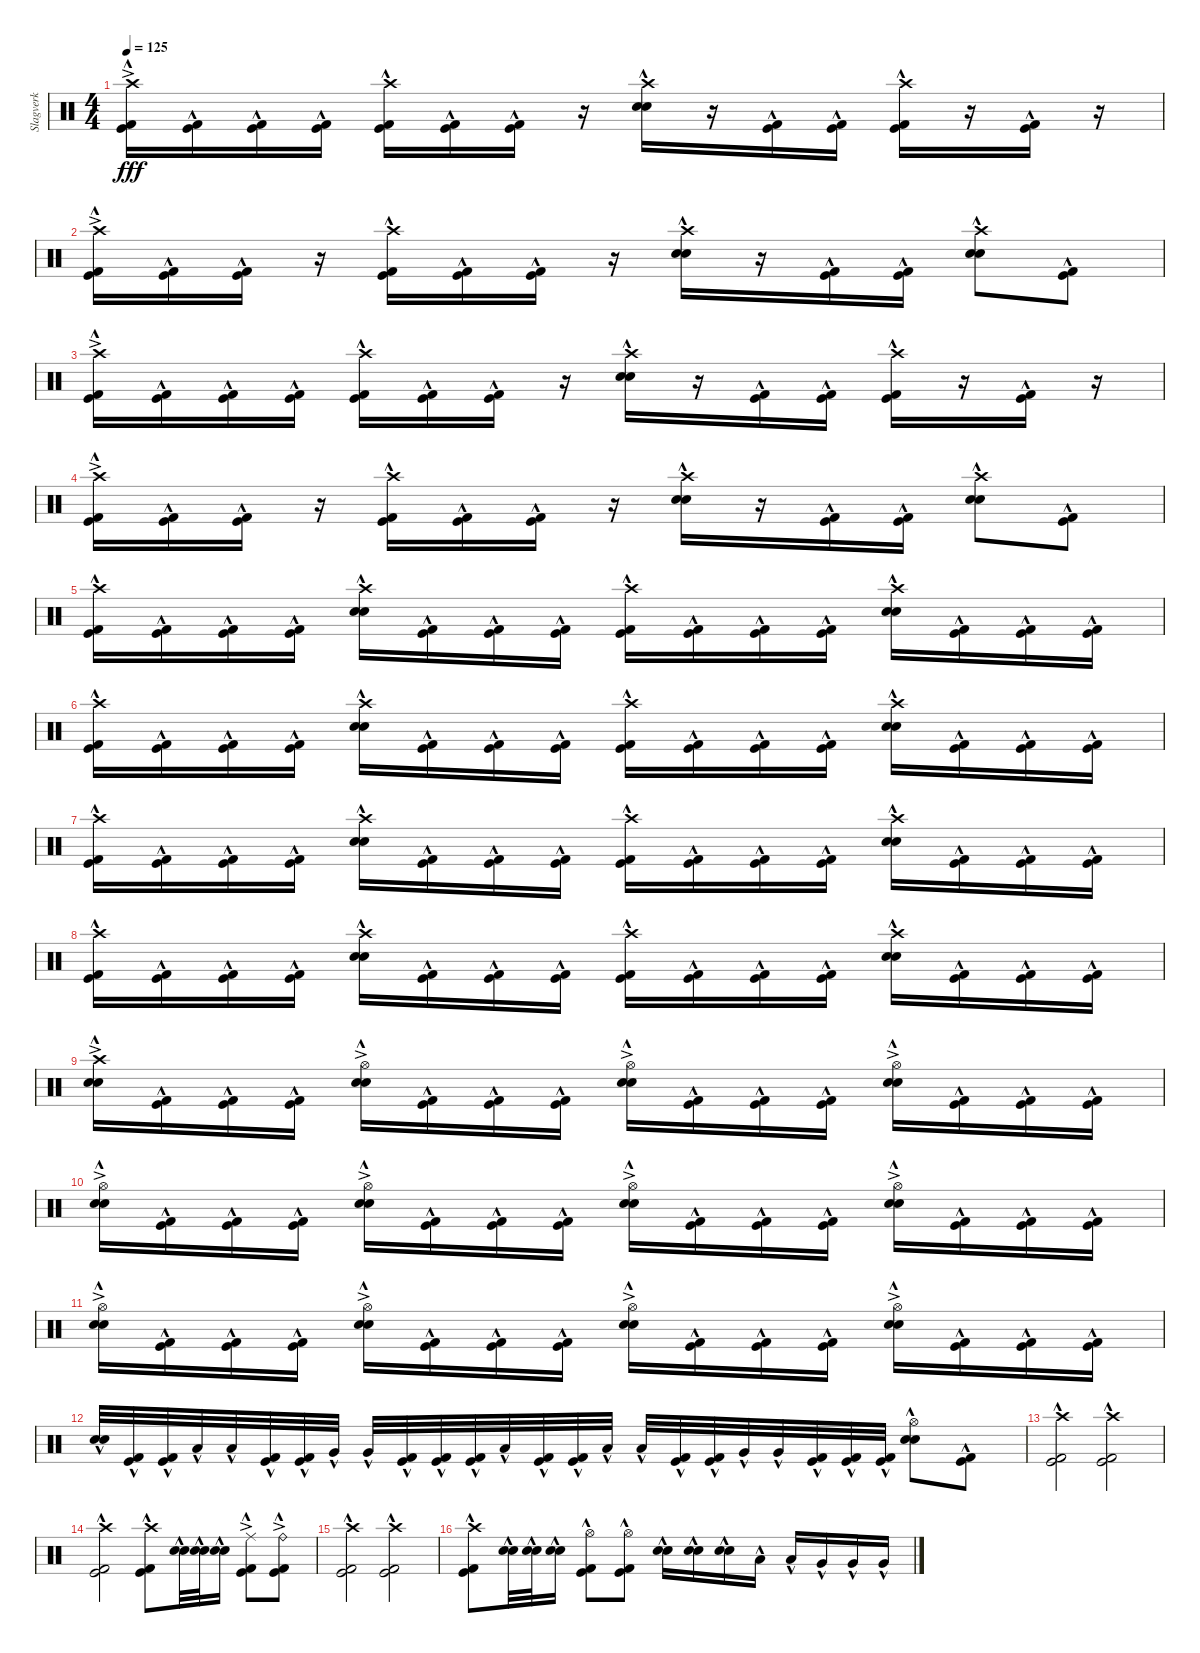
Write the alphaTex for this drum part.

\track ("Slagverk" "Slagverk") {instrument percussion}
\staff {score}
\articulation defaults
\ts (4 4)
\tempo 125
\clef neutral
\ks c
("Crash high (hit)"{ac} "Kick (hit)"{hac} "Kick (hit) 2"{hac}).16{dy fff} ("Kick (hit)"{hac} "Kick (hit) 2"{hac}).16 ("Kick (hit)"{hac} "Kick (hit) 2"{hac}).16 ("Kick (hit)"{hac} "Kick (hit) 2"{hac}).16 ("Crash high (hit)" "Kick (hit)"{hac} "Kick (hit) 2"{hac}).16 ("Kick (hit)"{hac} "Kick (hit) 2"{hac}).16 ("Kick (hit)"{hac} "Kick (hit) 2"{hac}).16 r.16 ("Crash high (hit)" "Electric Snare (hit)"{hac} "Snare (hit) 2").16 r.16 ("Kick (hit)"{hac} "Kick (hit) 2"{hac}).16 ("Kick (hit)"{hac} "Kick (hit) 2"{hac}).16 ("Crash high (hit)" "Kick (hit)"{hac} "Kick (hit) 2"{hac}).16 r.16 ("Kick (hit)"{hac} "Kick (hit) 2"{hac}).16 r.16 |
("Crash high (hit)"{ac} "Kick (hit)"{hac} "Kick (hit) 2"{hac}).16 ("Kick (hit)"{hac} "Kick (hit) 2"{hac}).16 ("Kick (hit)"{hac} "Kick (hit) 2"{hac}).16 r.16 ("Crash high (hit)" "Kick (hit)"{hac} "Kick (hit) 2"{hac}).16 ("Kick (hit)"{hac} "Kick (hit) 2"{hac}).16 ("Kick (hit)"{hac} "Kick (hit) 2"{hac}).16 r.16 ("Crash high (hit)" "Electric Snare (hit)"{hac} "Snare (hit) 2").16 r.16 ("Kick (hit)"{hac} "Kick (hit) 2"{hac}).16 ("Kick (hit)"{hac} "Kick (hit) 2"{hac}).16 ("Crash high (hit)" "Electric Snare (hit)"{hac} "Snare (hit) 2").8 ("Kick (hit)"{hac} "Kick (hit) 2"{hac}).8 |
("Crash high (hit)"{ac} "Kick (hit)"{hac} "Kick (hit) 2"{hac}).16 ("Kick (hit)"{hac} "Kick (hit) 2"{hac}).16 ("Kick (hit)"{hac} "Kick (hit) 2"{hac}).16 ("Kick (hit)"{hac} "Kick (hit) 2"{hac}).16 ("Crash high (hit)" "Kick (hit)"{hac} "Kick (hit) 2"{hac}).16 ("Kick (hit)"{hac} "Kick (hit) 2"{hac}).16 ("Kick (hit)"{hac} "Kick (hit) 2"{hac}).16 r.16 ("Crash high (hit)" "Electric Snare (hit)"{hac} "Snare (hit) 2").16 r.16 ("Kick (hit)"{hac} "Kick (hit) 2"{hac}).16 ("Kick (hit)"{hac} "Kick (hit) 2"{hac}).16 ("Crash high (hit)" "Kick (hit)"{hac} "Kick (hit) 2"{hac}).16 r.16 ("Kick (hit)"{hac} "Kick (hit) 2"{hac}).16 r.16 |
("Crash high (hit)"{ac} "Kick (hit)"{hac} "Kick (hit) 2"{hac}).16 ("Kick (hit)"{hac} "Kick (hit) 2"{hac}).16 ("Kick (hit)"{hac} "Kick (hit) 2"{hac}).16 r.16 ("Crash high (hit)" "Kick (hit)"{hac} "Kick (hit) 2"{hac}).16 ("Kick (hit)"{hac} "Kick (hit) 2"{hac}).16 ("Kick (hit)"{hac} "Kick (hit) 2"{hac}).16 r.16 ("Crash high (hit)" "Electric Snare (hit)"{hac} "Snare (hit) 2").16 r.16 ("Kick (hit)"{hac} "Kick (hit) 2"{hac}).16 ("Kick (hit)"{hac} "Kick (hit) 2"{hac}).16 ("Crash high (hit)" "Electric Snare (hit)"{hac} "Snare (hit) 2").8 ("Kick (hit)"{hac} "Kick (hit) 2"{hac}).8 |
("Crash high (hit)" "Kick (hit)"{hac} "Kick (hit) 2"{hac}).16 ("Kick (hit)"{hac} "Kick (hit) 2"{hac}).16 ("Kick (hit)"{hac} "Kick (hit) 2"{hac}).16 ("Kick (hit)"{hac} "Kick (hit) 2"{hac}).16 ("Crash high (hit)" "Electric Snare (hit)"{hac} "Snare (hit) 2").16 ("Kick (hit)"{hac} "Kick (hit) 2"{hac}).16 ("Kick (hit)"{hac} "Kick (hit) 2"{hac}).16 ("Kick (hit)"{hac} "Kick (hit) 2"{hac}).16 ("Crash high (hit)" "Kick (hit)"{hac} "Kick (hit) 2"{hac}).16 ("Kick (hit)"{hac} "Kick (hit) 2"{hac}).16 ("Kick (hit)"{hac} "Kick (hit) 2"{hac}).16 ("Kick (hit)"{hac} "Kick (hit) 2"{hac}).16 ("Crash high (hit)" "Electric Snare (hit)"{hac} "Snare (hit) 2").16 ("Kick (hit)"{hac} "Kick (hit) 2"{hac}).16 ("Kick (hit)"{hac} "Kick (hit) 2"{hac}).16 ("Kick (hit)"{hac} "Kick (hit) 2"{hac}).16 |
("Crash high (hit)" "Kick (hit)"{hac} "Kick (hit) 2"{hac}).16 ("Kick (hit)"{hac} "Kick (hit) 2"{hac}).16 ("Kick (hit)"{hac} "Kick (hit) 2"{hac}).16 ("Kick (hit)"{hac} "Kick (hit) 2"{hac}).16 ("Crash high (hit)" "Electric Snare (hit)"{hac} "Snare (hit) 2").16 ("Kick (hit)"{hac} "Kick (hit) 2"{hac}).16 ("Kick (hit)"{hac} "Kick (hit) 2"{hac}).16 ("Kick (hit)"{hac} "Kick (hit) 2"{hac}).16 ("Crash high (hit)" "Kick (hit)"{hac} "Kick (hit) 2"{hac}).16 ("Kick (hit)"{hac} "Kick (hit) 2"{hac}).16 ("Kick (hit)"{hac} "Kick (hit) 2"{hac}).16 ("Kick (hit)"{hac} "Kick (hit) 2"{hac}).16 ("Crash high (hit)" "Electric Snare (hit)"{hac} "Snare (hit) 2").16 ("Kick (hit)"{hac} "Kick (hit) 2"{hac}).16 ("Kick (hit)"{hac} "Kick (hit) 2"{hac}).16 ("Kick (hit)"{hac} "Kick (hit) 2"{hac}).16 |
("Crash high (hit)" "Kick (hit)"{hac} "Kick (hit) 2"{hac}).16 ("Kick (hit)"{hac} "Kick (hit) 2"{hac}).16 ("Kick (hit)"{hac} "Kick (hit) 2"{hac}).16 ("Kick (hit)"{hac} "Kick (hit) 2"{hac}).16 ("Crash high (hit)" "Electric Snare (hit)"{hac} "Snare (hit) 2").16 ("Kick (hit)"{hac} "Kick (hit) 2"{hac}).16 ("Kick (hit)"{hac} "Kick (hit) 2"{hac}).16 ("Kick (hit)"{hac} "Kick (hit) 2"{hac}).16 ("Crash high (hit)" "Kick (hit)"{hac} "Kick (hit) 2"{hac}).16 ("Kick (hit)"{hac} "Kick (hit) 2"{hac}).16 ("Kick (hit)"{hac} "Kick (hit) 2"{hac}).16 ("Kick (hit)"{hac} "Kick (hit) 2"{hac}).16 ("Crash high (hit)" "Electric Snare (hit)"{hac} "Snare (hit) 2").16 ("Kick (hit)"{hac} "Kick (hit) 2"{hac}).16 ("Kick (hit)"{hac} "Kick (hit) 2"{hac}).16 ("Kick (hit)"{hac} "Kick (hit) 2"{hac}).16 |
("Crash high (hit)" "Kick (hit)"{hac} "Kick (hit) 2"{hac}).16 ("Kick (hit)"{hac} "Kick (hit) 2"{hac}).16 ("Kick (hit)"{hac} "Kick (hit) 2"{hac}).16 ("Kick (hit)"{hac} "Kick (hit) 2"{hac}).16 ("Crash high (hit)" "Electric Snare (hit)"{hac} "Snare (hit) 2").16 ("Kick (hit)"{hac} "Kick (hit) 2"{hac}).16 ("Kick (hit)"{hac} "Kick (hit) 2"{hac}).16 ("Kick (hit)"{hac} "Kick (hit) 2"{hac}).16 ("Crash high (hit)" "Kick (hit)"{hac} "Kick (hit) 2"{hac}).16 ("Kick (hit)"{hac} "Kick (hit) 2"{hac}).16 ("Kick (hit)"{hac} "Kick (hit) 2"{hac}).16 ("Kick (hit)"{hac} "Kick (hit) 2"{hac}).16 ("Crash high (hit)" "Electric Snare (hit)"{hac} "Snare (hit) 2").16 ("Kick (hit)"{hac} "Kick (hit) 2"{hac}).16 ("Kick (hit)"{hac} "Kick (hit) 2"{hac}).16 ("Kick (hit)"{hac} "Kick (hit) 2"{hac}).16 |
("Crash high (hit)"{ac} "Electric Snare (hit)"{hac} "Snare (hit) 2").16 ("Kick (hit)"{hac} "Kick (hit) 2"{hac}).16 ("Kick (hit)"{hac} "Kick (hit) 2"{hac}).16 ("Kick (hit)"{hac} "Kick (hit) 2"{hac}).16 ("Hi-Hat (open)"{ac} "Electric Snare (hit)"{hac} "Snare (hit) 2").16 ("Kick (hit)"{hac} "Kick (hit) 2"{hac}).16 ("Kick (hit)"{hac} "Kick (hit) 2"{hac}).16 ("Kick (hit)"{hac} "Kick (hit) 2"{hac}).16 ("Hi-Hat (open)"{ac} "Electric Snare (hit)"{hac} "Snare (hit) 2").16 ("Kick (hit)"{hac} "Kick (hit) 2"{hac}).16 ("Kick (hit)"{hac} "Kick (hit) 2"{hac}).16 ("Kick (hit)"{hac} "Kick (hit) 2"{hac}).16 ("Hi-Hat (open)"{ac} "Electric Snare (hit)"{hac} "Snare (hit) 2").16 ("Kick (hit)"{hac} "Kick (hit) 2"{hac}).16 ("Kick (hit)"{hac} "Kick (hit) 2"{hac}).16 ("Kick (hit)"{hac} "Kick (hit) 2"{hac}).16 |
("Hi-Hat (open)"{ac} "Electric Snare (hit)"{hac} "Snare (hit) 2").16 ("Kick (hit)"{hac} "Kick (hit) 2"{hac}).16 ("Kick (hit)"{hac} "Kick (hit) 2"{hac}).16 ("Kick (hit)"{hac} "Kick (hit) 2"{hac}).16 ("Hi-Hat (open)"{ac} "Electric Snare (hit)"{hac} "Snare (hit) 2").16 ("Kick (hit)"{hac} "Kick (hit) 2"{hac}).16 ("Kick (hit)"{hac} "Kick (hit) 2"{hac}).16 ("Kick (hit)"{hac} "Kick (hit) 2"{hac}).16 ("Hi-Hat (open)"{ac} "Electric Snare (hit)"{hac} "Snare (hit) 2").16 ("Kick (hit)"{hac} "Kick (hit) 2"{hac}).16 ("Kick (hit)"{hac} "Kick (hit) 2"{hac}).16 ("Kick (hit)"{hac} "Kick (hit) 2"{hac}).16 ("Hi-Hat (open)"{ac} "Electric Snare (hit)"{hac} "Snare (hit) 2").16 ("Kick (hit)"{hac} "Kick (hit) 2"{hac}).16 ("Kick (hit)"{hac} "Kick (hit) 2"{hac}).16 ("Kick (hit)"{hac} "Kick (hit) 2"{hac}).16 |
("Hi-Hat (open)"{ac} "Electric Snare (hit)"{hac} "Snare (hit) 2").16 ("Kick (hit)"{hac} "Kick (hit) 2"{hac}).16 ("Kick (hit)"{hac} "Kick (hit) 2"{hac}).16 ("Kick (hit)"{hac} "Kick (hit) 2"{hac}).16 ("Hi-Hat (open)"{ac} "Electric Snare (hit)"{hac} "Snare (hit) 2").16 ("Kick (hit)"{hac} "Kick (hit) 2"{hac}).16 ("Kick (hit)"{hac} "Kick (hit) 2"{hac}).16 ("Kick (hit)"{hac} "Kick (hit) 2"{hac}).16 ("Hi-Hat (open)"{ac} "Electric Snare (hit)"{hac} "Snare (hit) 2").16 ("Kick (hit)"{hac} "Kick (hit) 2"{hac}).16 ("Kick (hit)"{hac} "Kick (hit) 2"{hac}).16 ("Kick (hit)"{hac} "Kick (hit) 2"{hac}).16 ("Hi-Hat (open)"{ac} "Electric Snare (hit)"{hac} "Snare (hit) 2").16 ("Kick (hit)"{hac} "Kick (hit) 2"{hac}).16 ("Kick (hit)"{hac} "Kick (hit) 2"{hac}).16 ("Kick (hit)"{hac} "Kick (hit) 2"{hac}).16 |
("Electric Snare (hit)"{hac} "Snare (hit) 2").32 ("Kick (hit)"{hac} "Kick (hit) 2"{hac}).32 ("Kick (hit)"{hac} "Kick (hit) 2"{hac}).32 "Low Tom (hit)"{hac}.32 "Low Tom (hit)"{hac}.32 ("Kick (hit)"{hac} "Kick (hit) 2"{hac}).32 ("Kick (hit)"{hac} "Kick (hit) 2"{hac}).32 "Very Low Tom (hit)"{hac}.32 "Very Low Tom (hit)"{hac}.32 ("Kick (hit)"{hac} "Kick (hit) 2"{hac}).32 ("Kick (hit)"{hac} "Kick (hit) 2"{hac}).32 ("Kick (hit)"{hac} "Kick (hit) 2"{hac}).32 "Low Tom (hit)"{hac}.32 ("Kick (hit)"{hac} "Kick (hit) 2"{hac}).32 ("Kick (hit)"{hac} "Kick (hit) 2"{hac}).32 "Low Tom (hit)"{hac}.32 "Low Tom (hit)"{hac}.32 ("Kick (hit)"{hac} "Kick (hit) 2"{hac}).32 ("Kick (hit)"{hac} "Kick (hit) 2"{hac}).32 "Very Low Tom (hit)"{hac}.32 "Very Low Tom (hit)"{hac}.32 ("Kick (hit)"{hac} "Kick (hit) 2"{hac}).32 ("Kick (hit)"{hac} "Kick (hit) 2"{hac}).32 ("Kick (hit)"{hac} "Kick (hit) 2"{hac}).32 ("Hi-Hat (open)" "Electric Snare (hit)"{hac} "Snare (hit) 2").8 ("Kick (hit)"{hac} "Kick (hit) 2"{hac}).8 |
("Crash high (hit)" "Kick (hit)"{hac} "Kick (hit) 2"{hac}).2 ("Crash high (hit)" "Kick (hit)"{hac} "Kick (hit) 2"{hac}).2 |
("Crash high (hit)" "Kick (hit)"{hac} "Kick (hit) 2"{hac}).2 ("Crash high (hit)" "Kick (hit)"{hac} "Kick (hit) 2"{hac}).8 ("Electric Snare (hit)"{hac} "Snare (hit) 2").32 ("Electric Snare (hit)"{hac} "Snare (hit) 2").32 ("Electric Snare (hit)"{hac} "Snare (hit) 2").16 ("Ride (middle)"{ac} "Kick (hit)"{hac} "Kick (hit) 2"{hac}).8 ("Ride (bell)"{ac} "Kick (hit)"{hac} "Kick (hit) 2"{hac}).8 |
("Crash high (hit)" "Kick (hit)"{hac} "Kick (hit) 2"{hac}).2 ("Crash high (hit)" "Kick (hit)"{hac} "Kick (hit) 2"{hac}).2 |
("Crash high (hit)" "Kick (hit)"{hac} "Kick (hit) 2"{hac}).8 ("Electric Snare (hit)"{hac} "Snare (hit) 2").32 ("Electric Snare (hit)"{hac} "Snare (hit) 2").32 ("Electric Snare (hit)"{hac} "Snare (hit) 2").16 ("Hi-Hat (open)" "Kick (hit)"{hac} "Kick (hit) 2"{hac}).8 ("Hi-Hat (open)" "Kick (hit)"{hac} "Kick (hit) 2"{hac}).8 ("Electric Snare (hit)"{hac} "Snare (hit) 2").16 ("Electric Snare (hit)"{hac} "Snare (hit) 2").16 ("Electric Snare (hit)"{hac} "Snare (hit) 2").16 "Low Tom (hit)"{hac}.16 "Low Tom (hit)"{hac}.16 "Very Low Tom (hit)"{hac}.16 "Very Low Tom (hit)"{hac}.16 "Very Low Tom (hit)"{hac}.16
